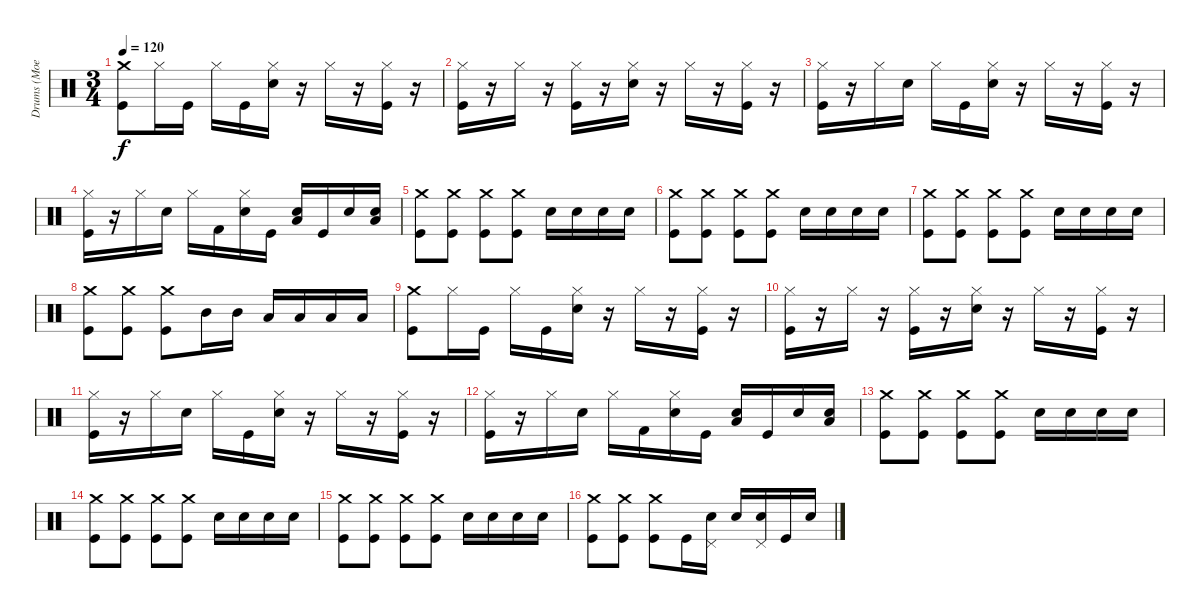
\track ("Drums (Moe)" "Drums (Moe") {instrument percussion}
\staff {score}
\articulation defaults
\ts (3 4)
\tempo 120
\clef neutral
\ks c
("Kick (hit)" "Crash medium (hit)").8{dy f} "Hi-Hat (closed)".16 "Kick (hit)".16 "Hi-Hat (closed)".16 "Kick (hit)".16 ("Snare (hit) 2" "Hi-Hat (closed)").16 r.16 "Hi-Hat (closed)".16 r.16 ("Kick (hit)" "Hi-Hat (closed)").16 r.16 |
("Kick (hit)" "Hi-Hat (closed)").16 r.16 "Hi-Hat (closed)".16 r.16 ("Kick (hit)" "Hi-Hat (closed)").16 r.16 ("Snare (hit) 2" "Hi-Hat (closed)").16 r.16 "Hi-Hat (closed)".16 r.16 ("Kick (hit)" "Hi-Hat (closed)").16 r.16 |
("Kick (hit)" "Hi-Hat (closed)").16 r.16 "Hi-Hat (closed)".16 "Snare (hit) 2".16 "Hi-Hat (closed)".16 "Kick (hit)".16 ("Snare (hit) 2" "Hi-Hat (closed)").16 r.16 "Hi-Hat (closed)".16 r.16 ("Kick (hit)" "Hi-Hat (closed)").16 r.16 |
("Kick (hit)" "Hi-Hat (closed)").16 r.16 "Hi-Hat (closed)".16 "Snare (hit) 2".16 "Hi-Hat (closed)".16 "Kick (hit) 2".16 ("Snare (hit) 2" "Hi-Hat (closed)").16 "Kick (hit)".16 ("Snare (hit) 2" "Low Floor Tom (hit)").16 "Kick (hit)".16 "Snare (hit) 2".16 ("Snare (hit) 2" "Low Floor Tom (hit)").16 |
("Kick (hit)" "Crash medium (hit)").8 ("Kick (hit)" "Crash medium (hit)").8 ("Kick (hit)" "Crash medium (hit)").8 ("Kick (hit)" "Crash medium (hit)").8 "Snare (hit) 2".16 "Snare (hit) 2".16 "Snare (hit) 2".16 "Snare (hit) 2".16 |
("Kick (hit)" "Crash medium (hit)").8 ("Kick (hit)" "Crash medium (hit)").8 ("Kick (hit)" "Crash medium (hit)").8 ("Kick (hit)" "Crash medium (hit)").8 "Snare (hit) 2".16 "Snare (hit) 2".16 "Snare (hit) 2".16 "Snare (hit) 2".16 |
("Kick (hit)" "Crash medium (hit)").8 ("Kick (hit)" "Crash medium (hit)").8 ("Kick (hit)" "Crash medium (hit)").8 ("Kick (hit)" "Crash medium (hit)").8 "Snare (hit) 2".16 "Snare (hit) 2".16 "Snare (hit) 2".16 "Snare (hit) 2".16 |
("Kick (hit)" "Crash medium (hit)").8 ("Kick (hit)" "Crash medium (hit)").8 ("Kick (hit)" "Crash medium (hit)").8 "Mid Tom (hit)".16 "Mid Tom (hit)".16 "Low Tom (hit)".16 "Low Tom (hit)".16 "Low Floor Tom (hit)".16 "Low Floor Tom (hit)".16 |
("Kick (hit)" "Crash medium (hit)").8 "Hi-Hat (closed)".16 "Kick (hit)".16 "Hi-Hat (closed)".16 "Kick (hit)".16 ("Snare (hit) 2" "Hi-Hat (closed)").16 r.16 "Hi-Hat (closed)".16 r.16 ("Kick (hit)" "Hi-Hat (closed)").16 r.16 |
("Kick (hit)" "Hi-Hat (closed)").16 r.16 "Hi-Hat (closed)".16 r.16 ("Kick (hit)" "Hi-Hat (closed)").16 r.16 ("Snare (hit) 2" "Hi-Hat (closed)").16 r.16 "Hi-Hat (closed)".16 r.16 ("Kick (hit)" "Hi-Hat (closed)").16 r.16 |
("Kick (hit)" "Hi-Hat (closed)").16 r.16 "Hi-Hat (closed)".16 "Snare (hit) 2".16 "Hi-Hat (closed)".16 "Kick (hit)".16 ("Snare (hit) 2" "Hi-Hat (closed)").16 r.16 "Hi-Hat (closed)".16 r.16 ("Kick (hit)" "Hi-Hat (closed)").16 r.16 |
("Kick (hit)" "Hi-Hat (closed)").16 r.16 "Hi-Hat (closed)".16 "Snare (hit) 2".16 "Hi-Hat (closed)".16 "Kick (hit) 2".16 ("Snare (hit) 2" "Hi-Hat (closed)").16 "Kick (hit)".16 ("Snare (hit) 2" "Low Floor Tom (hit)").16 "Kick (hit)".16 "Snare (hit) 2".16 ("Snare (hit) 2" "Low Floor Tom (hit)").16 |
("Kick (hit)" "Crash medium (hit)").8 ("Kick (hit)" "Crash medium (hit)").8 ("Kick (hit)" "Crash medium (hit)").8 ("Kick (hit)" "Crash medium (hit)").8 "Snare (hit) 2".16 "Snare (hit) 2".16 "Snare (hit) 2".16 "Snare (hit) 2".16 |
("Kick (hit)" "Crash medium (hit)").8 ("Kick (hit)" "Crash medium (hit)").8 ("Kick (hit)" "Crash medium (hit)").8 ("Kick (hit)" "Crash medium (hit)").8 "Snare (hit) 2".16 "Snare (hit) 2".16 "Snare (hit) 2".16 "Snare (hit) 2".16 |
("Kick (hit)" "Crash medium (hit)").8 ("Kick (hit)" "Crash medium (hit)").8 ("Kick (hit)" "Crash medium (hit)").8 ("Kick (hit)" "Crash medium (hit)").8 "Snare (hit) 2".16 "Snare (hit) 2".16 "Snare (hit) 2".16 "Snare (hit) 2".16 |
("Kick (hit)" "Crash medium (hit)").8 ("Kick (hit)" "Crash medium (hit)").8 ("Kick (hit)" "Crash medium (hit)").8 "Kick (hit)".16 ("Snare (hit) 2" "Pedal Hi-Hat (hit)").16 "Snare (hit) 2".16 ("Snare (hit) 2" "Pedal Hi-Hat (hit)").16 "Kick (hit)".16 "Snare (hit) 2".16
